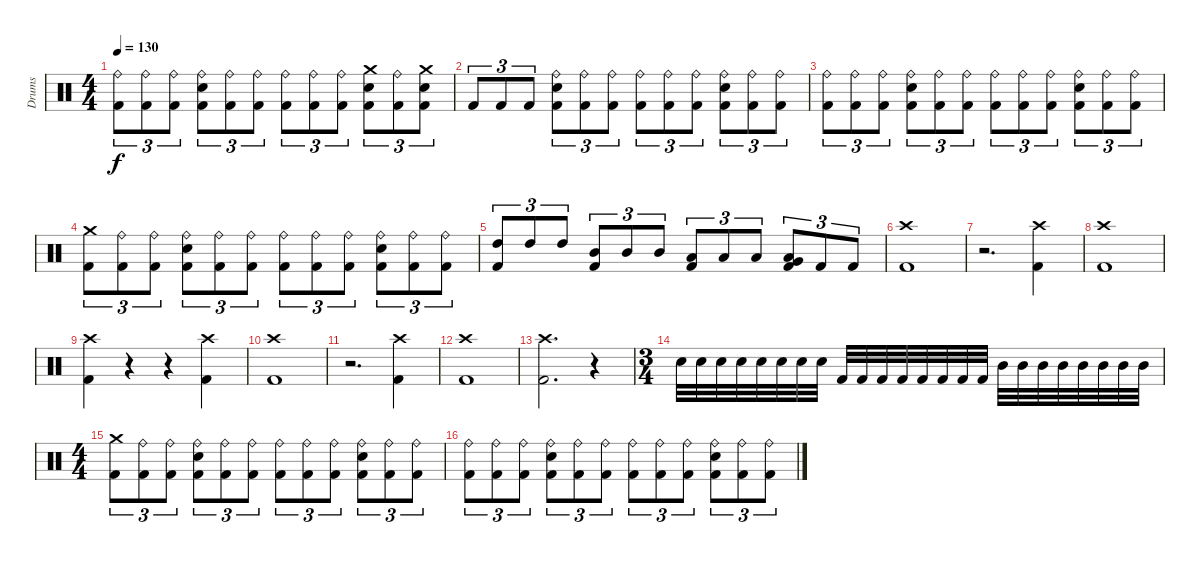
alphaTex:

\track ("Drums" "Drums") {instrument percussion}
\staff {score}
\articulation defaults
\ts (4 4)
\tempo 130
\clef neutral
\ks c
("Ride (bell)" "Kick (hit) 2").8{tu (3 2) dy f} ("Ride (bell)" "Kick (hit) 2").8{tu (3 2)} ("Ride (bell)" "Kick (hit) 2").8{tu (3 2)} ("Ride (bell)" "Electric Snare (hit)" "Kick (hit) 2").8{tu (3 2)} ("Ride (bell)" "Kick (hit) 2").8{tu (3 2)} ("Ride (bell)" "Kick (hit) 2").8{tu (3 2)} ("Ride (bell)" "Kick (hit) 2").8{tu (3 2)} ("Ride (bell)" "Kick (hit) 2").8{tu (3 2)} ("Ride (bell)" "Kick (hit) 2").8{tu (3 2)} ("Crash medium (hit)" "Electric Snare (hit)" "Kick (hit) 2").8{tu (3 2)} ("Ride (bell)" "Kick (hit) 2").8{tu (3 2)} ("Crash medium (hit)" "Electric Snare (hit)" "Kick (hit) 2").8{tu (3 2)} |
"Kick (hit) 2".8{tu (3 2)} "Kick (hit) 2".8{tu (3 2)} "Kick (hit) 2".8{tu (3 2)} ("Ride (bell)" "Electric Snare (hit)" "Kick (hit) 2").8{tu (3 2)} ("Ride (bell)" "Kick (hit) 2").8{tu (3 2)} ("Ride (bell)" "Kick (hit) 2").8{tu (3 2)} ("Ride (bell)" "Kick (hit) 2").8{tu (3 2)} ("Ride (bell)" "Kick (hit) 2").8{tu (3 2)} ("Ride (bell)" "Kick (hit) 2").8{tu (3 2)} ("Ride (bell)" "Electric Snare (hit)" "Kick (hit) 2").8{tu (3 2)} ("Ride (bell)" "Kick (hit) 2").8{tu (3 2)} ("Ride (bell)" "Kick (hit) 2").8{tu (3 2)} |
("Ride (bell)" "Kick (hit) 2").8{tu (3 2)} ("Ride (bell)" "Kick (hit) 2").8{tu (3 2)} ("Ride (bell)" "Kick (hit) 2").8{tu (3 2)} ("Ride (bell)" "Electric Snare (hit)" "Kick (hit) 2").8{tu (3 2)} ("Ride (bell)" "Kick (hit) 2").8{tu (3 2)} ("Ride (bell)" "Kick (hit) 2").8{tu (3 2)} ("Ride (bell)" "Kick (hit) 2").8{tu (3 2)} ("Ride (bell)" "Kick (hit) 2").8{tu (3 2)} ("Ride (bell)" "Kick (hit) 2").8{tu (3 2)} ("Ride (bell)" "Electric Snare (hit)" "Kick (hit) 2").8{tu (3 2)} ("Ride (bell)" "Kick (hit) 2").8{tu (3 2)} ("Ride (bell)" "Kick (hit) 2").8{tu (3 2)} |
("Crash medium (hit)" "Kick (hit) 2").8{tu (3 2)} ("Ride (bell)" "Kick (hit) 2").8{tu (3 2)} ("Ride (bell)" "Kick (hit) 2").8{tu (3 2)} ("Ride (bell)" "Electric Snare (hit)" "Kick (hit) 2").8{tu (3 2)} ("Ride (bell)" "Kick (hit) 2").8{tu (3 2)} ("Ride (bell)" "Kick (hit) 2").8{tu (3 2)} ("Ride (bell)" "Kick (hit) 2").8{tu (3 2)} ("Ride (bell)" "Kick (hit) 2").8{tu (3 2)} ("Ride (bell)" "Kick (hit) 2").8{tu (3 2)} ("Ride (bell)" "Electric Snare (hit)" "Kick (hit) 2").8{tu (3 2)} ("Ride (bell)" "Kick (hit) 2").8{tu (3 2)} ("Ride (bell)" "Kick (hit) 2").8{tu (3 2)} |
("High Tom (hit)" "Kick (hit) 2").8{tu (3 2)} "High Tom (hit)".8{tu (3 2)} "High Tom (hit)".8{tu (3 2)} ("Mid Tom (hit)" "Kick (hit) 2").8{tu (3 2)} "Mid Tom (hit)".8{tu (3 2)} "Mid Tom (hit)".8{tu (3 2)} ("Low Tom (hit)" "Kick (hit) 2").8{tu (3 2)} "Low Tom (hit)".8{tu (3 2)} "Low Tom (hit)".8{tu (3 2)} ("Low Tom (hit)" "Very Low Tom (hit)" "Kick (hit) 2").8{tu (3 2)} "Kick (hit) 2".8{tu (3 2)} "Kick (hit) 2".8{tu (3 2)} |
("Crash high (hit)" "Kick (hit) 2").1 |
r.2{d} ("Crash high (hit)" "Kick (hit) 2").4 |
("Crash high (hit)" "Kick (hit) 2").1 |
("Crash high (hit)" "Kick (hit) 2").4 r.4 r.4 ("Crash high (hit)" "Kick (hit) 2").4 |
("Crash high (hit)" "Kick (hit) 2").1 |
r.2{d} ("Crash high (hit)" "Kick (hit) 2").4 |
("Crash high (hit)" "Kick (hit) 2").1 |
("Crash high (hit)" "Kick (hit) 2").2{d} r.4 |
\ts (3 4)
"Electric Snare (hit)".32 "Electric Snare (hit)".32 "Electric Snare (hit)".32 "Electric Snare (hit)".32 "Electric Snare (hit)".32 "Electric Snare (hit)".32 "Electric Snare (hit)".32 "Electric Snare (hit)".32 "Kick (hit) 2".32 "Kick (hit) 2".32 "Kick (hit) 2".32 "Kick (hit) 2".32 "Kick (hit) 2".32 "Kick (hit) 2".32 "Kick (hit) 2".32 "Kick (hit) 2".32 "Mid Tom (hit)".32 "Mid Tom (hit)".32 "Mid Tom (hit)".32 "Mid Tom (hit)".32 "Mid Tom (hit)".32 "Mid Tom (hit)".32 "Mid Tom (hit)".32 "Mid Tom (hit)".32 |
\ts (4 4)
("Crash medium (hit)" "Kick (hit) 2").8{tu (3 2)} ("Ride (bell)" "Kick (hit) 2").8{tu (3 2)} ("Ride (bell)" "Kick (hit) 2").8{tu (3 2)} ("Ride (bell)" "Electric Snare (hit)" "Kick (hit) 2").8{tu (3 2)} ("Ride (bell)" "Kick (hit) 2").8{tu (3 2)} ("Ride (bell)" "Kick (hit) 2").8{tu (3 2)} ("Ride (bell)" "Kick (hit) 2").8{tu (3 2)} ("Ride (bell)" "Kick (hit) 2").8{tu (3 2)} ("Ride (bell)" "Kick (hit) 2").8{tu (3 2)} ("Ride (bell)" "Electric Snare (hit)" "Kick (hit) 2").8{tu (3 2)} ("Ride (bell)" "Kick (hit) 2").8{tu (3 2)} ("Ride (bell)" "Kick (hit) 2").8{tu (3 2)} |
("Ride (bell)" "Kick (hit) 2").8{tu (3 2)} ("Ride (bell)" "Kick (hit) 2").8{tu (3 2)} ("Ride (bell)" "Kick (hit) 2").8{tu (3 2)} ("Ride (bell)" "Electric Snare (hit)" "Kick (hit) 2").8{tu (3 2)} ("Ride (bell)" "Kick (hit) 2").8{tu (3 2)} ("Ride (bell)" "Kick (hit) 2").8{tu (3 2)} ("Ride (bell)" "Kick (hit) 2").8{tu (3 2)} ("Ride (bell)" "Kick (hit) 2").8{tu (3 2)} ("Ride (bell)" "Kick (hit) 2").8{tu (3 2)} ("Ride (bell)" "Electric Snare (hit)" "Kick (hit) 2").8{tu (3 2)} ("Ride (bell)" "Kick (hit) 2").8{tu (3 2)} ("Ride (bell)" "Kick (hit) 2").8{tu (3 2)}
